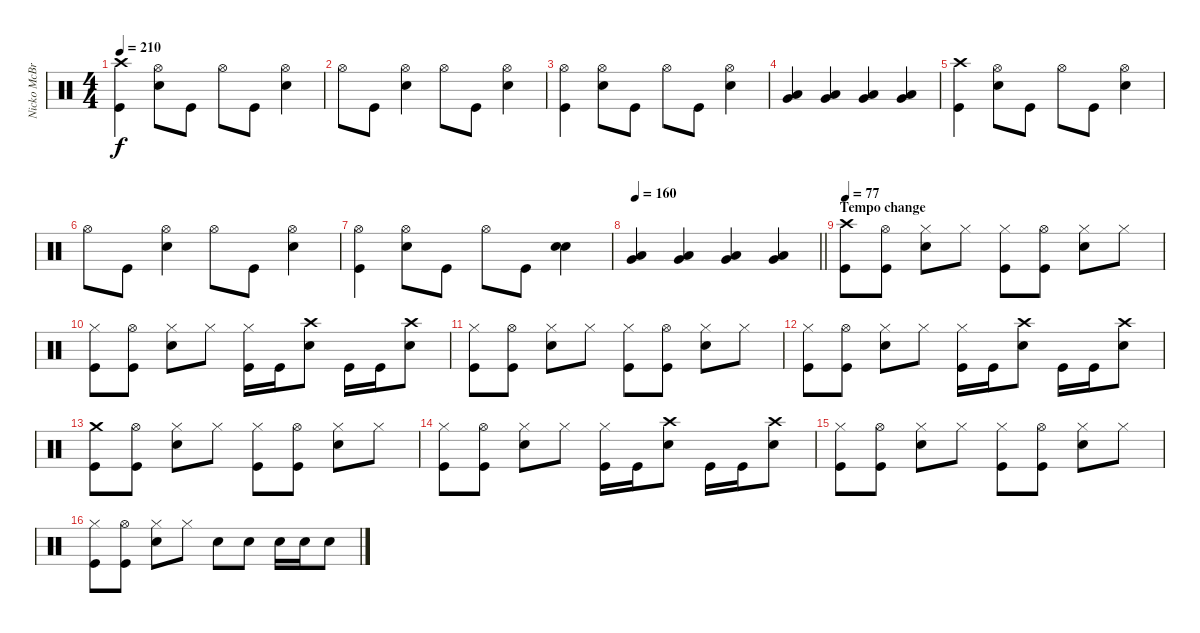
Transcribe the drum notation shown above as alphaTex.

\track ("Nicko McBrain" "Nicko McBr") {instrument percussion}
\staff {score}
\articulation defaults
\ts (4 4)
\tempo 210
\clef neutral
\ks c
("Crash high (hit)" "Kick (hit)").4{dy f} ("Hi-Hat (open)" "Snare (hit) 2").8 "Kick (hit)".8 "Hi-Hat (open)".8 "Kick (hit)".8 ("Hi-Hat (open)" "Snare (hit) 2").4 |
"Hi-Hat (open)".8 "Kick (hit)".8 ("Hi-Hat (open)" "Snare (hit) 2").4 "Hi-Hat (open)".8 "Kick (hit)".8 ("Hi-Hat (open)" "Snare (hit) 2").4 |
("Hi-Hat (open)" "Kick (hit)").4 ("Hi-Hat (open)" "Snare (hit) 2").8 "Kick (hit)".8 "Hi-Hat (open)".8 "Kick (hit)".8 ("Hi-Hat (open)" "Snare (hit) 2").4 |
("Very Low Tom (hit)" "Low Floor Tom (hit)").4 ("Very Low Tom (hit)" "Low Floor Tom (hit)").4 ("Low Tom (hit)" "Very Low Tom (hit)").4 ("Low Tom (hit)" "Very Low Tom (hit)").4 |
("Crash high (hit)" "Kick (hit)").4 ("Hi-Hat (open)" "Snare (hit) 2").8 "Kick (hit)".8 "Hi-Hat (open)".8 "Kick (hit)".8 ("Hi-Hat (open)" "Snare (hit) 2").4 |
"Hi-Hat (open)".8 "Kick (hit)".8 ("Hi-Hat (open)" "Snare (hit) 2").4 "Hi-Hat (open)".8 "Kick (hit)".8 ("Hi-Hat (open)" "Snare (hit) 2").4 |
("Hi-Hat (open)" "Kick (hit)").4 ("Hi-Hat (open)" "Snare (hit) 2").8 "Kick (hit)".8 "Hi-Hat (open)".8 "Kick (hit)".8 ("Snare (hit) 2" "Snare (hit) 2").4 |
\tempo 160
\barLineRight lightlight
("Low Tom (hit)" "Very Low Tom (hit)").4 ("Low Tom (hit)" "Very Low Tom (hit)").4 ("Very Low Tom (hit)" "Low Floor Tom (hit)").4 ("Very Low Tom (hit)" "Low Floor Tom (hit)").4 |
\section ("" "Tempo change")
\tempo 77
("Crash high (hit)" "Kick (hit)").8 ("Hi-Hat (open)" "Kick (hit)").8 ("Hi-Hat (closed)" "Snare (hit) 2").8 "Hi-Hat (closed)".8 ("Hi-Hat (closed)" "Kick (hit)").8 ("Hi-Hat (open)" "Kick (hit)").8 ("Hi-Hat (closed)" "Snare (hit) 2").8 "Hi-Hat (closed)".8 |
("Hi-Hat (closed)" "Kick (hit)").8 ("Hi-Hat (open)" "Kick (hit)").8 ("Hi-Hat (closed)" "Snare (hit) 2").8 "Hi-Hat (closed)".8 ("Hi-Hat (closed)" "Kick (hit)").16 "Kick (hit)".16 ("Crash high (hit)" "Snare (hit) 2").8 "Kick (hit)".16 "Kick (hit)".16 ("Crash high (hit)" "Snare (hit) 2").8 |
("Hi-Hat (closed)" "Kick (hit)").8 ("Hi-Hat (open)" "Kick (hit)").8 ("Hi-Hat (closed)" "Snare (hit) 2").8 "Hi-Hat (closed)".8 ("Hi-Hat (closed)" "Kick (hit)").8 ("Hi-Hat (open)" "Kick (hit)").8 ("Hi-Hat (closed)" "Snare (hit) 2").8 "Hi-Hat (closed)".8 |
("Hi-Hat (closed)" "Kick (hit)").8 ("Hi-Hat (open)" "Kick (hit)").8 ("Hi-Hat (closed)" "Snare (hit) 2").8 "Hi-Hat (closed)".8 ("Hi-Hat (closed)" "Kick (hit)").16 "Kick (hit)".16 ("Crash high (hit)" "Snare (hit) 2").8 "Kick (hit)".16 "Kick (hit)".16 ("Crash high (hit)" "Snare (hit) 2").8 |
("Crash medium (hit)" "Kick (hit)").8 ("Hi-Hat (open)" "Kick (hit)").8 ("Hi-Hat (closed)" "Snare (hit) 2").8 "Hi-Hat (closed)".8 ("Hi-Hat (closed)" "Kick (hit)").8 ("Hi-Hat (open)" "Kick (hit)").8 ("Hi-Hat (closed)" "Snare (hit) 2").8 "Hi-Hat (closed)".8 |
("Hi-Hat (closed)" "Kick (hit)").8 ("Hi-Hat (open)" "Kick (hit)").8 ("Hi-Hat (closed)" "Snare (hit) 2").8 "Hi-Hat (closed)".8 ("Hi-Hat (closed)" "Kick (hit)").16 "Kick (hit)".16 ("Crash high (hit)" "Snare (hit) 2").8 "Kick (hit)".16 "Kick (hit)".16 ("Crash high (hit)" "Snare (hit) 2").8 |
("Hi-Hat (closed)" "Kick (hit)").8 ("Hi-Hat (open)" "Kick (hit)").8 ("Hi-Hat (closed)" "Snare (hit) 2").8 "Hi-Hat (closed)".8 ("Hi-Hat (closed)" "Kick (hit)").8 ("Hi-Hat (open)" "Kick (hit)").8 ("Hi-Hat (closed)" "Snare (hit) 2").8 "Hi-Hat (closed)".8 |
("Hi-Hat (closed)" "Kick (hit)").8 ("Hi-Hat (open)" "Kick (hit)").8 ("Hi-Hat (closed)" "Snare (hit) 2").8 "Hi-Hat (closed)".8 "Snare (hit) 2".8 "Snare (hit) 2".8 "Snare (hit) 2".16 "Snare (hit) 2".16 "Snare (hit) 2".8
